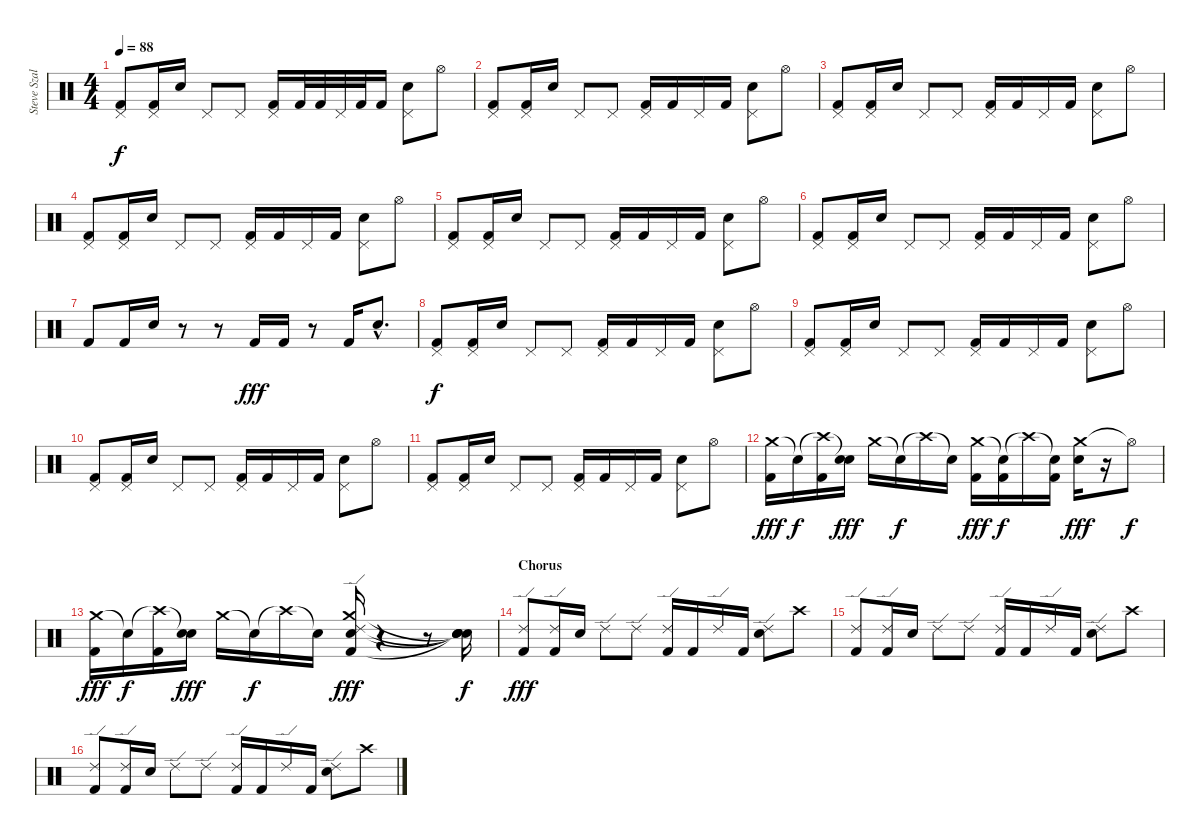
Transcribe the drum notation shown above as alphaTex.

\track ("Steve Szalay " "Steve Szal") {instrument percussion}
\staff {score}
\articulation defaults
\ts (4 4)
\tempo 88
\clef neutral
\ks c
("Pedal Hi-Hat (hit)" "Kick (hit) 2").8{dy f} ("Pedal Hi-Hat (hit)" "Kick (hit) 2").16 "Electric Snare (hit)".16 "Pedal Hi-Hat (hit)".8 "Pedal Hi-Hat (hit)".8 ("Pedal Hi-Hat (hit)" "Kick (hit) 2").16 "Kick (hit) 2".32 "Kick (hit) 2".32 "Pedal Hi-Hat (hit)".32 "Kick (hit) 2".32 "Kick (hit) 2".16 ("Pedal Hi-Hat (hit)" "Electric Snare (hit)").8 "Hi-Hat (open)".8 |
("Pedal Hi-Hat (hit)" "Kick (hit) 2").8 ("Pedal Hi-Hat (hit)" "Kick (hit) 2").16 "Electric Snare (hit)".16 "Pedal Hi-Hat (hit)".8 "Pedal Hi-Hat (hit)".8 ("Pedal Hi-Hat (hit)" "Kick (hit) 2").16 "Kick (hit) 2".16 "Pedal Hi-Hat (hit)".16 "Kick (hit) 2".16 ("Pedal Hi-Hat (hit)" "Electric Snare (hit)").8 "Hi-Hat (open)".8 |
("Pedal Hi-Hat (hit)" "Kick (hit) 2").8 ("Pedal Hi-Hat (hit)" "Kick (hit) 2").16 "Electric Snare (hit)".16 "Pedal Hi-Hat (hit)".8 "Pedal Hi-Hat (hit)".8 ("Pedal Hi-Hat (hit)" "Kick (hit) 2").16 "Kick (hit) 2".16 "Pedal Hi-Hat (hit)".16 "Kick (hit) 2".16 ("Pedal Hi-Hat (hit)" "Electric Snare (hit)").8 "Hi-Hat (open)".8 |
("Pedal Hi-Hat (hit)" "Kick (hit) 2").8 ("Pedal Hi-Hat (hit)" "Kick (hit) 2").16 "Electric Snare (hit)".16 "Pedal Hi-Hat (hit)".8 "Pedal Hi-Hat (hit)".8 ("Pedal Hi-Hat (hit)" "Kick (hit) 2").16 "Kick (hit) 2".16 "Pedal Hi-Hat (hit)".16 "Kick (hit) 2".16 ("Pedal Hi-Hat (hit)" "Electric Snare (hit)").8 "Hi-Hat (open)".8 |
("Pedal Hi-Hat (hit)" "Kick (hit) 2").8 ("Pedal Hi-Hat (hit)" "Kick (hit) 2").16 "Electric Snare (hit)".16 "Pedal Hi-Hat (hit)".8 "Pedal Hi-Hat (hit)".8 ("Pedal Hi-Hat (hit)" "Kick (hit) 2").16 "Kick (hit) 2".16 "Pedal Hi-Hat (hit)".16 "Kick (hit) 2".16 ("Pedal Hi-Hat (hit)" "Electric Snare (hit)").8 "Hi-Hat (open)".8 |
("Pedal Hi-Hat (hit)" "Kick (hit) 2").8 ("Pedal Hi-Hat (hit)" "Kick (hit) 2").16 "Electric Snare (hit)".16 "Pedal Hi-Hat (hit)".8 "Pedal Hi-Hat (hit)".8 ("Pedal Hi-Hat (hit)" "Kick (hit) 2").16 "Kick (hit) 2".16 "Pedal Hi-Hat (hit)".16 "Kick (hit) 2".16 ("Pedal Hi-Hat (hit)" "Electric Snare (hit)").8 "Hi-Hat (open)".8 |
"Kick (hit) 2".8 "Kick (hit) 2".16 "Electric Snare (hit)".16 r.8 r.8 "Kick (hit) 2".16{dy fff} "Kick (hit) 2".16 r.8 "Kick (hit) 2".16 "Electric Snare (hit)"{hac}.8{d} |
("Pedal Hi-Hat (hit)" "Kick (hit) 2").8{dy f} ("Pedal Hi-Hat (hit)" "Kick (hit) 2").16 "Electric Snare (hit)".16 "Pedal Hi-Hat (hit)".8 "Pedal Hi-Hat (hit)".8 ("Pedal Hi-Hat (hit)" "Kick (hit) 2").16 "Kick (hit) 2".16 "Pedal Hi-Hat (hit)".16 "Kick (hit) 2".16 ("Pedal Hi-Hat (hit)" "Electric Snare (hit)").8 "Hi-Hat (open)".8 |
("Pedal Hi-Hat (hit)" "Kick (hit) 2").8 ("Pedal Hi-Hat (hit)" "Kick (hit) 2").16 "Electric Snare (hit)".16 "Pedal Hi-Hat (hit)".8 "Pedal Hi-Hat (hit)".8 ("Pedal Hi-Hat (hit)" "Kick (hit) 2").16 "Kick (hit) 2".16 "Pedal Hi-Hat (hit)".16 "Kick (hit) 2".16 ("Pedal Hi-Hat (hit)" "Electric Snare (hit)").8 "Hi-Hat (open)".8 |
("Pedal Hi-Hat (hit)" "Kick (hit) 2").8 ("Pedal Hi-Hat (hit)" "Kick (hit) 2").16 "Electric Snare (hit)".16 "Pedal Hi-Hat (hit)".8 "Pedal Hi-Hat (hit)".8 ("Pedal Hi-Hat (hit)" "Kick (hit) 2").16 "Kick (hit) 2".16 "Pedal Hi-Hat (hit)".16 "Kick (hit) 2".16 ("Pedal Hi-Hat (hit)" "Electric Snare (hit)").8 "Hi-Hat (open)".8 |
("Pedal Hi-Hat (hit)" "Kick (hit) 2").8 ("Pedal Hi-Hat (hit)" "Kick (hit) 2").16 "Electric Snare (hit)".16 "Pedal Hi-Hat (hit)".8 "Pedal Hi-Hat (hit)".8 ("Pedal Hi-Hat (hit)" "Kick (hit) 2").16 "Kick (hit) 2".16 "Pedal Hi-Hat (hit)".16 "Kick (hit) 2".16 ("Pedal Hi-Hat (hit)" "Electric Snare (hit)").8 "Hi-Hat (open)".8 |
("Crash medium (hit)" "Kick (hit) 2").16{dy fff} "Snare (hit)"{t}.16{dy f} ("Crash high (hit)"{t} "Kick (hit) 2").16 ("Snare (hit)"{t} "Electric Snare (hit)").16{dy fff} "Crash medium (hit)".16 "Snare (hit)"{t}.16{dy f} "Crash high (hit)"{t}.16 "Snare (hit)"{t}.16 ("Crash medium (hit)" "Kick (hit) 2").16{dy fff} ("Snare (hit)"{t} "Kick (hit) 2").16{dy f} "Crash high (hit)"{t}.16 ("Snare (hit)"{t} "Kick (hit) 2").16 ("Crash medium (hit)" "Electric Snare (hit)").16{dy fff} r.16 "Hi-Hat (open)"{t}.8{dy f} |
("Crash medium (hit)" "Kick (hit) 2").16{dy fff} "Snare (hit)"{t}.16{dy f} ("Crash high (hit)"{t} "Kick (hit) 2").16 ("Snare (hit)"{t} "Electric Snare (hit)").16{dy fff} "Crash medium (hit)".16 "Snare (hit)"{t}.16{dy f} "Crash high (hit)"{t}.16 "Snare (hit)"{t}.16 ("Crash medium (hit)" "Ride (edge) 2" "Electric Snare (hit)" "Kick (hit) 2").16{dy fff} r.4 r.8 ("Snare (hit)"{t} "Snare (hit)"{t} "Snare (hit)"{t} "Snare (hit)"{t}).16{dy f} |
\section ("" "Chorus")
("Ride (edge) 2" "Kick (hit) 2").8{dy fff} ("Ride (edge) 2" "Kick (hit) 2").16 "Electric Snare (hit)".16 "Ride (edge) 2".8 "Ride (edge) 2".8 ("Ride (edge) 2" "Kick (hit) 2").16 "Kick (hit) 2".16 "Ride (edge) 2".16 "Kick (hit) 2".16 ("Ride (edge) 2" "Electric Snare (hit)").8 "Crash high (hit)".8 |
("Ride (edge) 2" "Kick (hit) 2").8 ("Ride (edge) 2" "Kick (hit) 2").16 "Electric Snare (hit)".16 "Ride (edge) 2".8 "Ride (edge) 2".8 ("Ride (edge) 2" "Kick (hit) 2").16 "Kick (hit) 2".16 "Ride (edge) 2".16 "Kick (hit) 2".16 ("Ride (edge) 2" "Electric Snare (hit)").8 "Crash high (hit)".8 |
("Ride (edge) 2" "Kick (hit) 2").8 ("Ride (edge) 2" "Kick (hit) 2").16 "Electric Snare (hit)".16 "Ride (edge) 2".8 "Ride (edge) 2".8 ("Ride (edge) 2" "Kick (hit) 2").16 "Kick (hit) 2".16 "Ride (edge) 2".16 "Kick (hit) 2".16 ("Ride (edge) 2" "Electric Snare (hit)").8 "Crash high (hit)".8
